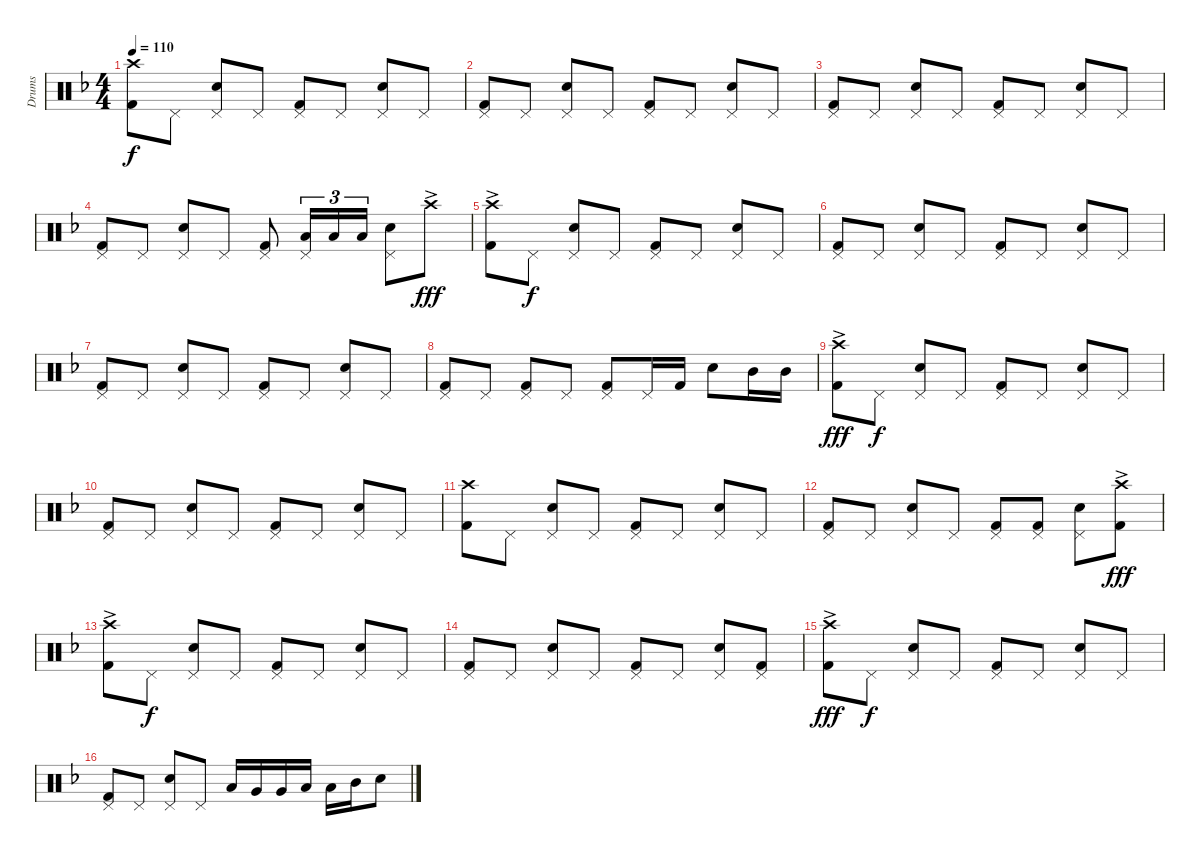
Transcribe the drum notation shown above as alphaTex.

\track ("Drums" "Drums") {instrument percussion}
\staff {score}
\articulation defaults
\ts (4 4)
\tempo 110
\clef neutral
\ks f
("Kick (hit) 2" "Crash high (hit)").8{dy f} "Pedal Hi-Hat (hit)".8 ("Snare (hit) 2" "Pedal Hi-Hat (hit)").8 "Pedal Hi-Hat (hit)".8 ("Kick (hit) 2" "Pedal Hi-Hat (hit)").8 "Pedal Hi-Hat (hit)".8 ("Snare (hit) 2" "Pedal Hi-Hat (hit)").8 "Pedal Hi-Hat (hit)".8 |
("Kick (hit) 2" "Pedal Hi-Hat (hit)").8 "Pedal Hi-Hat (hit)".8 ("Snare (hit) 2" "Pedal Hi-Hat (hit)").8 "Pedal Hi-Hat (hit)".8 ("Kick (hit) 2" "Pedal Hi-Hat (hit)").8 "Pedal Hi-Hat (hit)".8 ("Snare (hit) 2" "Pedal Hi-Hat (hit)").8 "Pedal Hi-Hat (hit)".8 |
("Kick (hit) 2" "Pedal Hi-Hat (hit)").8 "Pedal Hi-Hat (hit)".8 ("Snare (hit) 2" "Pedal Hi-Hat (hit)").8 "Pedal Hi-Hat (hit)".8 ("Kick (hit) 2" "Pedal Hi-Hat (hit)").8 "Pedal Hi-Hat (hit)".8 ("Snare (hit) 2" "Pedal Hi-Hat (hit)").8 "Pedal Hi-Hat (hit)".8 |
("Kick (hit) 2" "Pedal Hi-Hat (hit)").8 "Pedal Hi-Hat (hit)".8 ("Snare (hit) 2" "Pedal Hi-Hat (hit)").8 "Pedal Hi-Hat (hit)".8 ("Kick (hit) 2" "Pedal Hi-Hat (hit)").8 ("Low Floor Tom (hit)" "Pedal Hi-Hat (hit)").16{tu (3 2)} "Low Floor Tom (hit)".16{tu (3 2)} "Low Floor Tom (hit)".16{tu (3 2)} ("Snare (hit) 2" "Pedal Hi-Hat (hit)").8 "Crash high (hit)"{ac}.8{dy fff} |
("Kick (hit) 2" "Crash high (hit)"{ac}).8 "Pedal Hi-Hat (hit)".8{dy f} ("Snare (hit) 2" "Pedal Hi-Hat (hit)").8 "Pedal Hi-Hat (hit)".8 ("Kick (hit) 2" "Pedal Hi-Hat (hit)").8 "Pedal Hi-Hat (hit)".8 ("Snare (hit) 2" "Pedal Hi-Hat (hit)").8 "Pedal Hi-Hat (hit)".8 |
("Kick (hit) 2" "Pedal Hi-Hat (hit)").8 "Pedal Hi-Hat (hit)".8 ("Snare (hit) 2" "Pedal Hi-Hat (hit)").8 "Pedal Hi-Hat (hit)".8 ("Kick (hit) 2" "Pedal Hi-Hat (hit)").8 "Pedal Hi-Hat (hit)".8 ("Snare (hit) 2" "Pedal Hi-Hat (hit)").8 "Pedal Hi-Hat (hit)".8 |
("Kick (hit) 2" "Pedal Hi-Hat (hit)").8 "Pedal Hi-Hat (hit)".8 ("Snare (hit) 2" "Pedal Hi-Hat (hit)").8 "Pedal Hi-Hat (hit)".8 ("Kick (hit) 2" "Pedal Hi-Hat (hit)").8 "Pedal Hi-Hat (hit)".8 ("Snare (hit) 2" "Pedal Hi-Hat (hit)").8 "Pedal Hi-Hat (hit)".8 |
("Kick (hit) 2" "Pedal Hi-Hat (hit)").8 "Pedal Hi-Hat (hit)".8 ("Kick (hit) 2" "Pedal Hi-Hat (hit)").8 "Pedal Hi-Hat (hit)".8 ("Kick (hit) 2" "Pedal Hi-Hat (hit)").8 "Pedal Hi-Hat (hit)".16 "Kick (hit) 2".16 "Snare (hit) 2".8 "Mid Tom (hit)".16 "Mid Tom (hit)".16 |
("Kick (hit) 2" "Crash high (hit)"{ac}).8{dy fff} "Pedal Hi-Hat (hit)".8{dy f} ("Snare (hit) 2" "Pedal Hi-Hat (hit)").8 "Pedal Hi-Hat (hit)".8 ("Kick (hit) 2" "Pedal Hi-Hat (hit)").8 "Pedal Hi-Hat (hit)".8 ("Snare (hit) 2" "Pedal Hi-Hat (hit)").8 "Pedal Hi-Hat (hit)".8 |
("Kick (hit) 2" "Pedal Hi-Hat (hit)").8 "Pedal Hi-Hat (hit)".8 ("Snare (hit) 2" "Pedal Hi-Hat (hit)").8 "Pedal Hi-Hat (hit)".8 ("Kick (hit) 2" "Pedal Hi-Hat (hit)").8 "Pedal Hi-Hat (hit)".8 ("Snare (hit) 2" "Pedal Hi-Hat (hit)").8 "Pedal Hi-Hat (hit)".8 |
("Kick (hit) 2" "Crash high (hit)").8 "Pedal Hi-Hat (hit)".8 ("Snare (hit) 2" "Pedal Hi-Hat (hit)").8 "Pedal Hi-Hat (hit)".8 ("Kick (hit) 2" "Pedal Hi-Hat (hit)").8 "Pedal Hi-Hat (hit)".8 ("Snare (hit) 2" "Pedal Hi-Hat (hit)").8 "Pedal Hi-Hat (hit)".8 |
("Kick (hit) 2" "Pedal Hi-Hat (hit)").8 "Pedal Hi-Hat (hit)".8 ("Snare (hit) 2" "Pedal Hi-Hat (hit)").8 "Pedal Hi-Hat (hit)".8 ("Kick (hit) 2" "Pedal Hi-Hat (hit)").8 ("Kick (hit) 2" "Pedal Hi-Hat (hit)").8 ("Snare (hit) 2" "Pedal Hi-Hat (hit)").8 ("Kick (hit) 2" "Crash high (hit)"{ac}).8{dy fff} |
("Kick (hit) 2" "Crash high (hit)"{ac}).8 "Pedal Hi-Hat (hit)".8{dy f} ("Snare (hit) 2" "Pedal Hi-Hat (hit)").8 "Pedal Hi-Hat (hit)".8 ("Kick (hit) 2" "Pedal Hi-Hat (hit)").8 "Pedal Hi-Hat (hit)".8 ("Snare (hit) 2" "Pedal Hi-Hat (hit)").8 "Pedal Hi-Hat (hit)".8 |
("Kick (hit) 2" "Pedal Hi-Hat (hit)").8 "Pedal Hi-Hat (hit)".8 ("Snare (hit) 2" "Pedal Hi-Hat (hit)").8 "Pedal Hi-Hat (hit)".8 ("Kick (hit) 2" "Pedal Hi-Hat (hit)").8 "Pedal Hi-Hat (hit)".8 ("Snare (hit) 2" "Pedal Hi-Hat (hit)").8 ("Kick (hit) 2" "Pedal Hi-Hat (hit)").8 |
("Kick (hit) 2" "Crash high (hit)"{ac}).8{dy fff} "Pedal Hi-Hat (hit)".8{dy f} ("Snare (hit) 2" "Pedal Hi-Hat (hit)").8 "Pedal Hi-Hat (hit)".8 ("Kick (hit) 2" "Pedal Hi-Hat (hit)").8 "Pedal Hi-Hat (hit)".8 ("Snare (hit) 2" "Pedal Hi-Hat (hit)").8 "Pedal Hi-Hat (hit)".8 |
("Kick (hit) 2" "Pedal Hi-Hat (hit)").8 "Pedal Hi-Hat (hit)".8 ("Snare (hit) 2" "Pedal Hi-Hat (hit)").8 "Pedal Hi-Hat (hit)".8 "Low Floor Tom (hit)".16 "Very Low Tom (hit)".16 "Very Low Tom (hit)".16 "Low Tom (hit)".16 "Low Tom (hit)".16 "Mid Tom (hit)".16 "Snare (hit) 2".8
